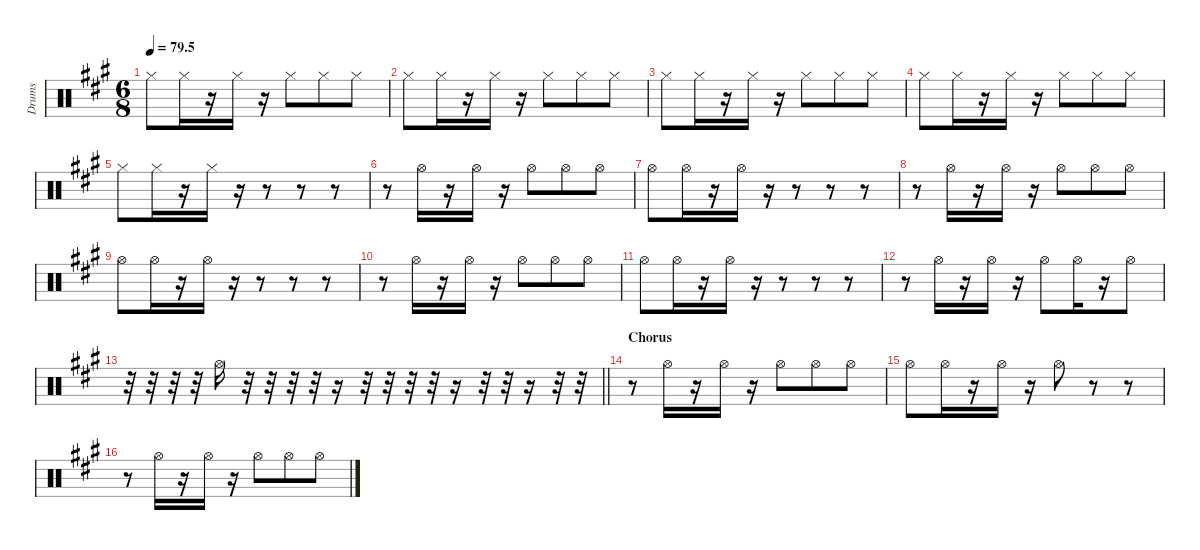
\defaultSystemsLayout 4
\hideDynamics
\bracketExtendMode nobrackets
\otherSystemsTrackNameOrientation horizontal
\track ("Hihat" "Drums") {instrument percussion}
\staff {score}
\articulation defaults
\ts (6 8)
\tempo
79.5
\accidentals auto
\clef neutral
\ottava regular
\simile none
\scale
0.333333
\ks a "Hi-Hat (closed)"{acc forcenatural}.8{dy f} "Hi-Hat (closed)"{acc forcenatural}.16
r.16 "Hi-Hat (closed)"{acc forcenatural}.16 r.16 "Hi-Hat (closed)"{acc forcenatural}.8 "Hi-Hat (closed)"{acc forcenatural}.8 "Hi-Hat (closed)"{acc forcenatural}.8 |
\scale
0.333333 "Hi-Hat (closed)"{acc forcenatural}.8 "Hi-Hat (closed)"{acc forcenatural}.16 r.16 "Hi-Hat (closed)"{acc forcenatural}.16 r.16 "Hi-Hat (closed)"{acc forcenatural}.8 "Hi-Hat (closed)"{acc forcenatural}.8 "Hi-Hat (closed)"{acc forcenatural}.8 |
\scale
0.333333 "Hi-Hat (closed)"{acc forcenatural}.8 "Hi-Hat (closed)"{acc forcenatural}.16 r.16 "Hi-Hat (closed)"{acc forcenatural}.16 r.16 "Hi-Hat (closed)"{acc forcenatural}.8 "Hi-Hat (closed)"{acc forcenatural}.8 "Hi-Hat (closed)"{acc forcenatural}.8 |
\scale
0.333333 "Hi-Hat (closed)"{acc forcenatural}.8 "Hi-Hat (closed)"{acc forcenatural}.16 r.16 "Hi-Hat (closed)"{acc forcenatural}.16 r.16 "Hi-Hat (closed)"{acc forcenatural}.8 "Hi-Hat (closed)"{acc forcenatural}.8 "Hi-Hat (closed)"{acc forcenatural}.8 |
\scale
0.333333 "Hi-Hat (closed)"{acc forcenatural}.8 "Hi-Hat (closed)"{acc forcenatural}.16 r.16 "Hi-Hat (closed)"{acc forcenatural}.16 r.16 r.8 r.8 r.8 |
\scale
0.333333 r.8 "Hi-Hat (open)"{acc forcenatural}.16 r.16 "Hi-Hat (open)"{acc forcenatural}.16 r.16 "Hi-Hat (open)"{acc forcenatural}.8 "Hi-Hat (open)"{acc forcenatural}.8 "Hi-Hat (open)"{acc forcenatural}.8 |
\scale
0.333333 "Hi-Hat (open)"{acc forcenatural}.8 "Hi-Hat (open)"{acc forcenatural}.16 r.16 "Hi-Hat (open)"{acc forcenatural}.16 r.16 r.8 r.8 r.8 |
\scale
0.333333 r.8 "Hi-Hat (open)"{acc forcenatural}.16 r.16 "Hi-Hat (open)"{acc forcenatural}.16 r.16 "Hi-Hat (open)"{acc forcenatural}.8 "Hi-Hat (open)"{acc forcenatural}.8 "Hi-Hat (open)"{acc forcenatural}.8 |
\scale
0.333333 "Hi-Hat (open)"{acc forcenatural}.8 "Hi-Hat (open)"{acc forcenatural}.16 r.16 "Hi-Hat (open)"{acc forcenatural}.16 r.16 r.8 r.8 r.8 |
\scale
0.333333 r.8 "Hi-Hat (open)"{acc forcenatural}.16 r.16 "Hi-Hat (open)"{acc forcenatural}.16 r.16 "Hi-Hat (open)"{acc forcenatural}.8 "Hi-Hat (open)"{acc forcenatural}.8 "Hi-Hat (open)"{acc forcenatural}.8 |
\scale
0.333333 "Hi-Hat (open)"{acc forcenatural}.8 "Hi-Hat (open)"{acc forcenatural}.16 r.16 "Hi-Hat (open)"{acc forcenatural}.16 r.16 r.8 r.8 r.8 |
\scale
0.333333 r.8 "Hi-Hat (open)"{acc forcenatural}.16 r.16 "Hi-Hat (open)"{acc forcenatural}.16 r.16 "Hi-Hat (open)"{acc forcenatural}.8 "Hi-Hat (open)"{acc forcenatural}.16 r.16 "Hi-Hat (open)"{acc forcenatural}.8 |
\scale
0.333333
\barLineRight lightlight
r.32 r.32 r.32 r.32 "Hi-Hat (open)"{acc forcenatural}.16 r.32 r.32 r.32 r.32 r.16 r.32 r.32 r.32 r.32 r.16 r.32 r.32 r.16 r.32 r.32 |
\section ("" "Chorus")
\scale
0.333333 r.8 "Hi-Hat (open)"{acc forcenatural}.16 r.16 "Hi-Hat (open)"{acc forcenatural}.16 r.16 "Hi-Hat (open)"{acc forcenatural}.8 "Hi-Hat (open)"{acc forcenatural}.8 "Hi-Hat (open)"{acc forcenatural}.8 |
\scale
0.333333 "Hi-Hat (open)"{acc forcenatural}.8 "Hi-Hat (open)"{acc forcenatural}.16 r.16 "Hi-Hat (open)"{acc forcenatural}.16 r.16 "Hi-Hat (open)"{acc forcenatural}.8 r.8 r.8 |
\scale
0.333333 r.8 "Hi-Hat (open)"{acc forcenatural}.16 r.16 "Hi-Hat (open)"{acc forcenatural}.16 r.16 "Hi-Hat (open)"{acc forcenatural}.8 "Hi-Hat (open)"{acc forcenatural}.8 "Hi-Hat (open)"{acc forcenatural}.8
